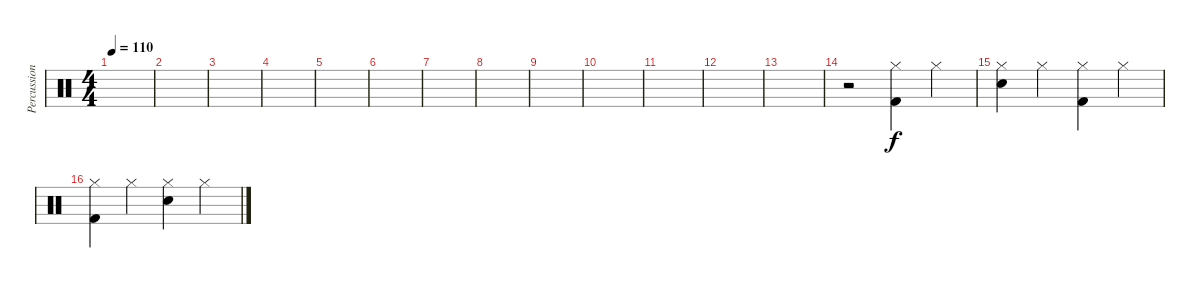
\track ("Percussion" "Percussion") {instrument percussion}
\staff {score}
\articulation defaults
\ts (4 4)
\tempo 110
\clef neutral
\ks c
|
|
|
|
|
|
|
|
|
|
|
|
|
r.2 ("Hi-Hat (closed)" "Kick (hit) 2").4 "Hi-Hat (closed)".4 |
("Snare (hit) 2" "Hi-Hat (closed)").4 "Hi-Hat (closed)".4 ("Hi-Hat (closed)" "Kick (hit) 2").4 "Hi-Hat (closed)".4 |
("Hi-Hat (closed)" "Kick (hit) 2").4 "Hi-Hat (closed)".4 ("Hi-Hat (closed)" "Snare (hit) 2").4 "Hi-Hat (closed)".4
